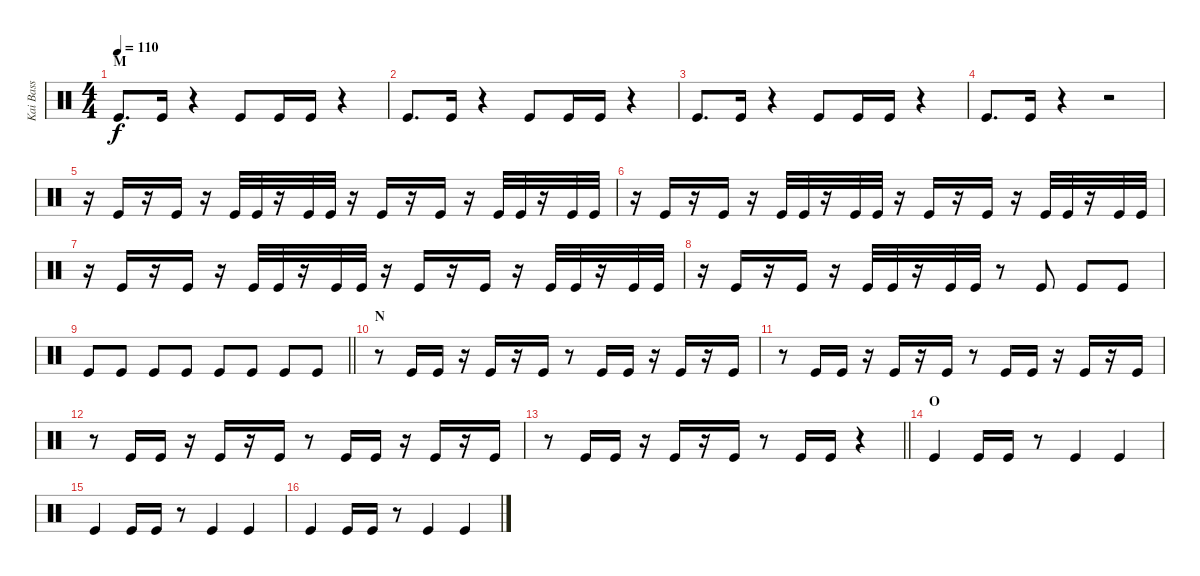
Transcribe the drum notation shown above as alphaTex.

\track ("Kai Bass" "Kai Bass") {instrument percussion}
\staff {score}
\articulation defaults
\ts (4 4)
\section ("" "M")
\tempo 110
\clef neutral
\ks c "Kick (hit)".8{d dy f} "Kick (hit)".16
r.4 "Kick (hit)".8 "Kick (hit)".16 "Kick (hit)".16 r.4 |
"Kick (hit)".8{d} "Kick (hit)".16 r.4 "Kick (hit)".8 "Kick (hit)".16 "Kick (hit)".16 r.4 |
"Kick (hit)".8{d} "Kick (hit)".16 r.4 "Kick (hit)".8 "Kick (hit)".16 "Kick (hit)".16 r.4 |
"Kick (hit)".8{d} "Kick (hit)".16 r.4 r.2 |
r.16 "Kick (hit)".16 r.16 "Kick (hit)".16 r.16 "Kick (hit)".32 "Kick (hit)".32 r.16 "Kick (hit)".32 "Kick (hit)".32 r.16 "Kick (hit)".16 r.16 "Kick (hit)".16 r.16 "Kick (hit)".32 "Kick (hit)".32 r.16 "Kick (hit)".32 "Kick (hit)".32 |
r.16 "Kick (hit)".16 r.16 "Kick (hit)".16 r.16 "Kick (hit)".32 "Kick (hit)".32 r.16 "Kick (hit)".32 "Kick (hit)".32 r.16 "Kick (hit)".16 r.16 "Kick (hit)".16 r.16 "Kick (hit)".32 "Kick (hit)".32 r.16 "Kick (hit)".32 "Kick (hit)".32 |
r.16 "Kick (hit)".16 r.16 "Kick (hit)".16 r.16 "Kick (hit)".32 "Kick (hit)".32 r.16 "Kick (hit)".32 "Kick (hit)".32 r.16 "Kick (hit)".16 r.16 "Kick (hit)".16 r.16 "Kick (hit)".32 "Kick (hit)".32 r.16 "Kick (hit)".32 "Kick (hit)".32 |
r.16 "Kick (hit)".16 r.16 "Kick (hit)".16 r.16 "Kick (hit)".32 "Kick (hit)".32 r.16 "Kick (hit)".32 "Kick (hit)".32 r.8 "Kick (hit)".8 "Kick (hit)".8 "Kick (hit)".8 |
\barLineRight lightlight "Kick (hit)".8 "Kick (hit)".8 "Kick (hit)".8 "Kick (hit)".8 "Kick (hit)".8 "Kick (hit)".8 "Kick (hit)".8 "Kick (hit)".8
|
\section ("" "N")
r.8 "Kick (hit)".16 "Kick (hit)".16 r.16 "Kick (hit)".16 r.16 "Kick (hit)".16 r.8 "Kick (hit)".16 "Kick (hit)".16 r.16 "Kick (hit)".16 r.16 "Kick (hit)".16 |
r.8 "Kick (hit)".16 "Kick (hit)".16 r.16 "Kick (hit)".16 r.16 "Kick (hit)".16 r.8 "Kick (hit)".16 "Kick (hit)".16 r.16 "Kick (hit)".16 r.16 "Kick (hit)".16 |
r.8 "Kick (hit)".16 "Kick (hit)".16 r.16 "Kick (hit)".16 r.16 "Kick (hit)".16 r.8 "Kick (hit)".16 "Kick (hit)".16 r.16 "Kick (hit)".16 r.16 "Kick (hit)".16 |
\barLineRight lightlight
r.8 "Kick (hit)".16 "Kick (hit)".16 r.16 "Kick (hit)".16 r.16 "Kick (hit)".16 r.8 "Kick (hit)".16 "Kick (hit)".16 r.4 |
\section ("" "O")
"Kick (hit)".4 "Kick (hit)".16 "Kick (hit)".16 r.8 "Kick (hit)".4 "Kick (hit)".4 |
"Kick (hit)".4 "Kick (hit)".16 "Kick (hit)".16 r.8 "Kick (hit)".4 "Kick (hit)".4 |
"Kick (hit)".4 "Kick (hit)".16 "Kick (hit)".16 r.8 "Kick (hit)".4 "Kick (hit)".4
